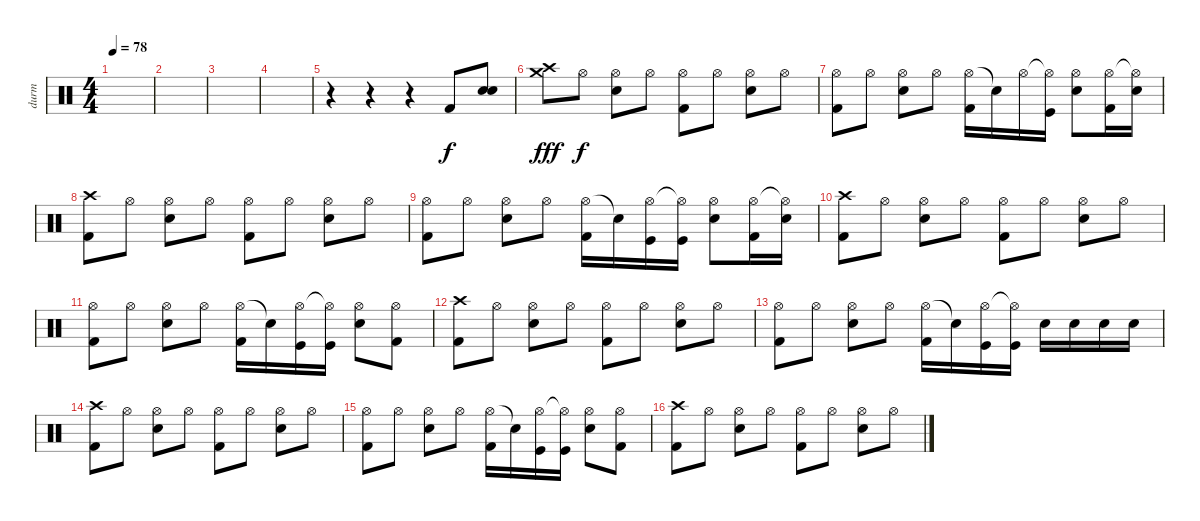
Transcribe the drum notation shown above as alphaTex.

\track ("durm" "durm") {instrument percussion}
\staff {score}
\articulation defaults
\ts (4 4)
\tempo 78
\clef neutral
\ks c
|
|
|
|
r.4 r.4 r.4 "Kick (hit) 2".8 ("Electric Snare (hit)" "Electric Snare (hit)").8{bu 120} |
("Crash high (hit)" "Crash medium (hit)").8{dy fff} "Hi-Hat (open)".8{dy f} ("Hi-Hat (open)" "Electric Snare (hit)").8 "Hi-Hat (open)".8 ("Hi-Hat (open)" "Kick (hit) 2").8 "Hi-Hat (open)".8 ("Hi-Hat (open)" "Electric Snare (hit)").8 "Hi-Hat (open)".8 |
("Hi-Hat (open)" "Kick (hit) 2").8 "Hi-Hat (open)".8 ("Hi-Hat (open)" "Electric Snare (hit)").8 "Hi-Hat (open)".8 ("Hi-Hat (open)" "Kick (hit) 2").16 "Snare (hit)"{t}.16 "Hi-Hat (open)".16 ("Hi-Hat (open)"{t} "Kick (hit)").16 ("Hi-Hat (open)" "Electric Snare (hit)").8 ("Hi-Hat (open)" "Kick (hit) 2").16 ("Hi-Hat (open)"{t} "Electric Snare (hit)").16 |
("Crash high (hit)" "Kick (hit) 2").8 "Hi-Hat (open)".8 ("Hi-Hat (open)" "Electric Snare (hit)").8 "Hi-Hat (open)".8 ("Hi-Hat (open)" "Kick (hit) 2").8 "Hi-Hat (open)".8 ("Hi-Hat (open)" "Electric Snare (hit)").8 "Hi-Hat (open)".8 |
("Hi-Hat (open)" "Kick (hit) 2").8 "Hi-Hat (open)".8 ("Hi-Hat (open)" "Electric Snare (hit)").8 "Hi-Hat (open)".8 ("Hi-Hat (open)" "Kick (hit) 2").16 "Snare (hit)"{t}.16 ("Hi-Hat (open)" "Kick (hit)").16 ("Hi-Hat (open)"{t} "Kick (hit)").16 ("Hi-Hat (open)" "Electric Snare (hit)").8 ("Hi-Hat (open)" "Kick (hit) 2").16 ("Hi-Hat (open)"{t} "Electric Snare (hit)").16 |
("Crash high (hit)" "Kick (hit) 2").8 "Hi-Hat (open)".8 ("Hi-Hat (open)" "Electric Snare (hit)").8 "Hi-Hat (open)".8 ("Hi-Hat (open)" "Kick (hit) 2").8 "Hi-Hat (open)".8 ("Hi-Hat (open)" "Electric Snare (hit)").8 "Hi-Hat (open)".8 |
("Hi-Hat (open)" "Kick (hit) 2").8 "Hi-Hat (open)".8 ("Hi-Hat (open)" "Electric Snare (hit)").8 "Hi-Hat (open)".8 ("Hi-Hat (open)" "Kick (hit) 2").16 "Snare (hit)"{t}.16 ("Hi-Hat (open)" "Kick (hit)").16 ("Hi-Hat (open)"{t} "Kick (hit)").16 ("Hi-Hat (open)" "Electric Snare (hit)").8 ("Hi-Hat (open)" "Kick (hit) 2").8 |
("Crash high (hit)" "Kick (hit) 2").8 "Hi-Hat (open)".8 ("Hi-Hat (open)" "Electric Snare (hit)").8 "Hi-Hat (open)".8 ("Hi-Hat (open)" "Kick (hit) 2").8 "Hi-Hat (open)".8 ("Hi-Hat (open)" "Electric Snare (hit)").8 "Hi-Hat (open)".8 |
("Hi-Hat (open)" "Kick (hit) 2").8 "Hi-Hat (open)".8 ("Hi-Hat (open)" "Electric Snare (hit)").8 "Hi-Hat (open)".8 ("Hi-Hat (open)" "Kick (hit) 2").16 "Snare (hit)"{t}.16 ("Hi-Hat (open)" "Kick (hit)").16 ("Hi-Hat (open)"{t} "Kick (hit)").16 "Electric Snare (hit)".16 "Electric Snare (hit)".16 "Electric Snare (hit)".16 "Electric Snare (hit)".16 |
("Crash high (hit)" "Kick (hit) 2").8 "Hi-Hat (open)".8 ("Hi-Hat (open)" "Electric Snare (hit)").8 "Hi-Hat (open)".8 ("Hi-Hat (open)" "Kick (hit) 2").8 "Hi-Hat (open)".8 ("Hi-Hat (open)" "Electric Snare (hit)").8 "Hi-Hat (open)".8 |
("Hi-Hat (open)" "Kick (hit) 2").8 "Hi-Hat (open)".8 ("Hi-Hat (open)" "Electric Snare (hit)").8 "Hi-Hat (open)".8 ("Hi-Hat (open)" "Kick (hit) 2").16 "Snare (hit)"{t}.16 ("Hi-Hat (open)" "Kick (hit)").16 ("Hi-Hat (open)"{t} "Kick (hit)").16 ("Hi-Hat (open)" "Electric Snare (hit)").8 ("Hi-Hat (open)" "Kick (hit) 2").8 |
("Crash high (hit)" "Kick (hit) 2").8 "Hi-Hat (open)".8 ("Hi-Hat (open)" "Electric Snare (hit)").8 "Hi-Hat (open)".8 ("Hi-Hat (open)" "Kick (hit) 2").8 "Hi-Hat (open)".8 ("Hi-Hat (open)" "Electric Snare (hit)").8 "Hi-Hat (open)".8
